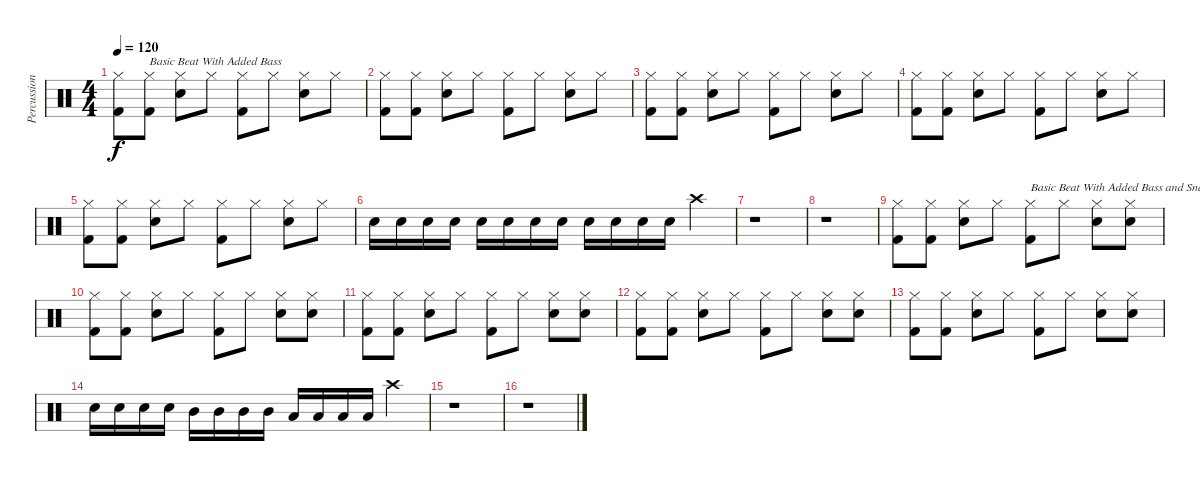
\track ("Percussion" "Percussion") {instrument percussion}
\staff {score}
\articulation defaults
\ts (4 4)
\tempo 120
\clef neutral
\ks c
("Hi-Hat (closed)" "Kick (hit) 2").8{dy f} ("Hi-Hat (closed)" "Kick (hit) 2").8{txt "Basic Beat With Added Bass"} ("Snare (hit) 2" "Hi-Hat (closed)").8 "Hi-Hat (closed)".8 ("Hi-Hat (closed)" "Kick (hit) 2").8 "Hi-Hat (closed)".8 ("Snare (hit) 2" "Hi-Hat (closed)").8 "Hi-Hat (closed)".8 |
("Hi-Hat (closed)" "Kick (hit) 2").8 ("Hi-Hat (closed)" "Kick (hit) 2").8 ("Snare (hit) 2" "Hi-Hat (closed)").8 "Hi-Hat (closed)".8 ("Hi-Hat (closed)" "Kick (hit) 2").8 "Hi-Hat (closed)".8 ("Snare (hit) 2" "Hi-Hat (closed)").8 "Hi-Hat (closed)".8 |
("Hi-Hat (closed)" "Kick (hit) 2").8 ("Hi-Hat (closed)" "Kick (hit) 2").8 ("Snare (hit) 2" "Hi-Hat (closed)").8 "Hi-Hat (closed)".8 ("Hi-Hat (closed)" "Kick (hit) 2").8 "Hi-Hat (closed)".8 ("Snare (hit) 2" "Hi-Hat (closed)").8 "Hi-Hat (closed)".8 |
("Hi-Hat (closed)" "Kick (hit) 2").8 ("Hi-Hat (closed)" "Kick (hit) 2").8 ("Snare (hit) 2" "Hi-Hat (closed)").8 "Hi-Hat (closed)".8 ("Hi-Hat (closed)" "Kick (hit) 2").8 "Hi-Hat (closed)".8 ("Snare (hit) 2" "Hi-Hat (closed)").8 "Hi-Hat (closed)".8 |
("Hi-Hat (closed)" "Kick (hit) 2").8 ("Hi-Hat (closed)" "Kick (hit) 2").8 ("Snare (hit) 2" "Hi-Hat (closed)").8 "Hi-Hat (closed)".8 ("Hi-Hat (closed)" "Kick (hit) 2").8 "Hi-Hat (closed)".8 ("Snare (hit) 2" "Hi-Hat (closed)").8 "Hi-Hat (closed)".8 |
"Snare (hit) 2".16 "Snare (hit) 2".16 "Snare (hit) 2".16 "Snare (hit) 2".16 "Snare (hit) 2".16 "Snare (hit) 2".16 "Snare (hit) 2".16 "Snare (hit) 2".16 "Snare (hit) 2".16 "Snare (hit) 2".16 "Snare (hit) 2".16 "Snare (hit) 2".16 "Crash high (hit)".4 |
r.1 |
r.1 |
("Hi-Hat (closed)" "Kick (hit) 2").8 ("Hi-Hat (closed)" "Kick (hit) 2").8 ("Snare (hit) 2" "Hi-Hat (closed)").8 "Hi-Hat (closed)".8 ("Hi-Hat (closed)" "Kick (hit) 2").8{txt "Basic Beat With Added Bass and Snare"} "Hi-Hat (closed)".8 ("Snare (hit) 2" "Hi-Hat (closed)").8 ("Snare (hit) 2" "Hi-Hat (closed)").8 |
("Hi-Hat (closed)" "Kick (hit) 2").8 ("Hi-Hat (closed)" "Kick (hit) 2").8 ("Snare (hit) 2" "Hi-Hat (closed)").8 "Hi-Hat (closed)".8 ("Hi-Hat (closed)" "Kick (hit) 2").8 "Hi-Hat (closed)".8 ("Snare (hit) 2" "Hi-Hat (closed)").8 ("Snare (hit) 2" "Hi-Hat (closed)").8 |
("Hi-Hat (closed)" "Kick (hit) 2").8 ("Hi-Hat (closed)" "Kick (hit) 2").8 ("Snare (hit) 2" "Hi-Hat (closed)").8 "Hi-Hat (closed)".8 ("Hi-Hat (closed)" "Kick (hit) 2").8 "Hi-Hat (closed)".8 ("Snare (hit) 2" "Hi-Hat (closed)").8 ("Snare (hit) 2" "Hi-Hat (closed)").8 |
("Hi-Hat (closed)" "Kick (hit) 2").8 ("Hi-Hat (closed)" "Kick (hit) 2").8 ("Snare (hit) 2" "Hi-Hat (closed)").8 "Hi-Hat (closed)".8 ("Hi-Hat (closed)" "Kick (hit) 2").8 "Hi-Hat (closed)".8 ("Snare (hit) 2" "Hi-Hat (closed)").8 ("Snare (hit) 2" "Hi-Hat (closed)").8 |
("Hi-Hat (closed)" "Kick (hit) 2").8 ("Hi-Hat (closed)" "Kick (hit) 2").8 ("Snare (hit) 2" "Hi-Hat (closed)").8 "Hi-Hat (closed)".8 ("Hi-Hat (closed)" "Kick (hit) 2").8 "Hi-Hat (closed)".8 ("Snare (hit) 2" "Hi-Hat (closed)").8 ("Snare (hit) 2" "Hi-Hat (closed)").8 |
"Snare (hit) 2".16 "Snare (hit) 2".16 "Snare (hit) 2".16 "Snare (hit) 2".16 "Mid Tom (hit)".16 "Mid Tom (hit)".16 "Mid Tom (hit)".16 "Mid Tom (hit)".16 "Low Tom (hit)".16 "Low Tom (hit)".16 "Low Tom (hit)".16 "Low Tom (hit)".16 "Crash high (hit)".4 |
r.1 |
r.1
